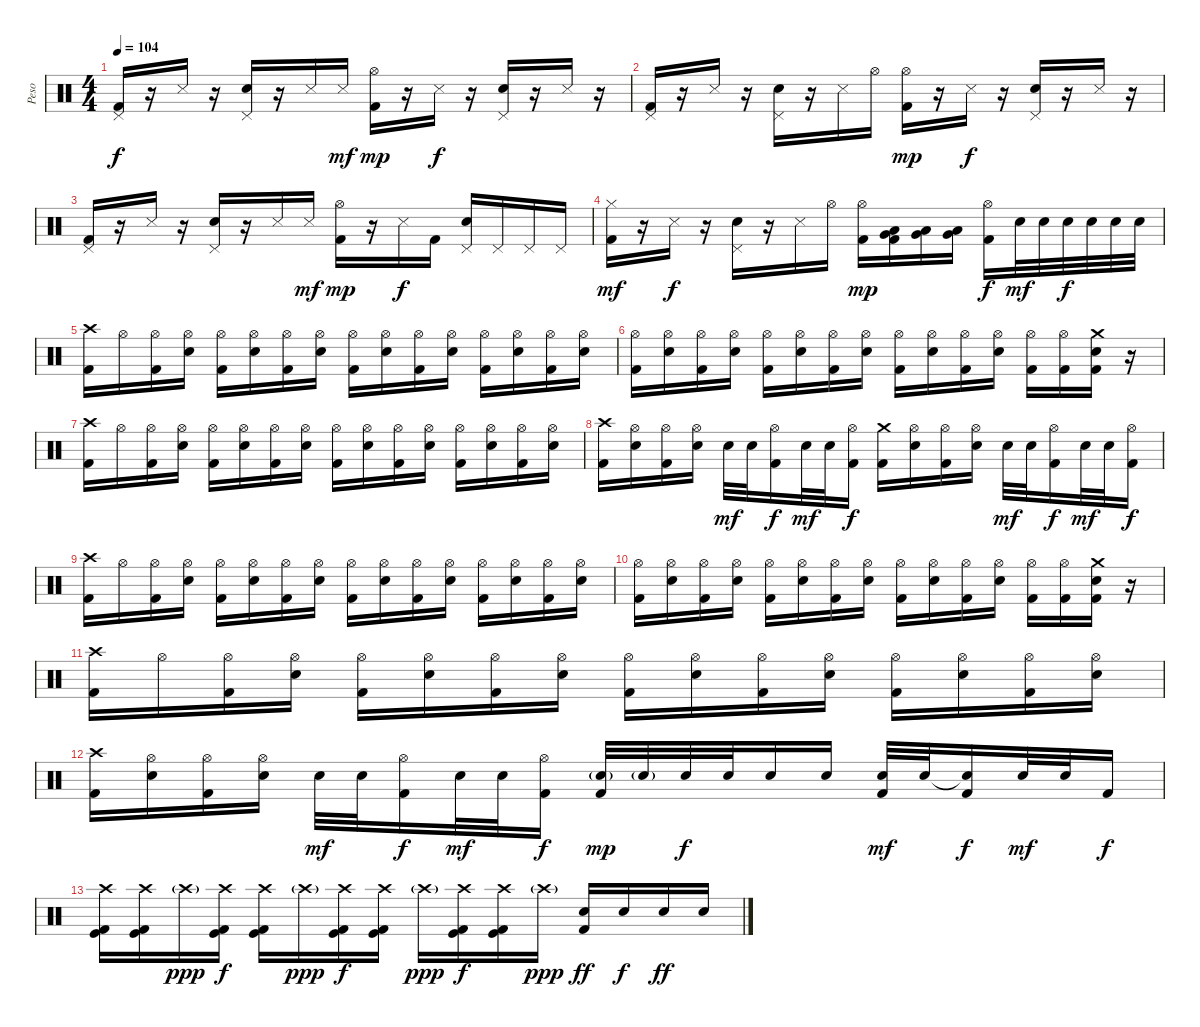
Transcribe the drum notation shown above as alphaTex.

\track ("Peso" "Peso") {instrument percussion}
\staff {score}
\articulation defaults
\ts (4 4)
\tempo 104
\clef neutral
\ks c
("Pedal Hi-Hat (hit)" "Kick (hit) 2").16{dy f volume 15} r.16 "Metronome (hit)".16 r.16 ("Pedal Hi-Hat (hit)" "Electric Snare (hit)").16 r.16 "Metronome (hit)".16 "Metronome (hit)".16{dy mf} ("Hi-Hat (open)" "Kick (hit) 2").16{dy mp} r.16 "Metronome (hit)".16{dy f} r.16 ("Pedal Hi-Hat (hit)" "Electric Snare (hit)").16 r.16 "Metronome (hit)".16 r.16 |
("Pedal Hi-Hat (hit)" "Kick (hit) 2").16 r.16 "Metronome (hit)".16 r.16 ("Pedal Hi-Hat (hit)" "Electric Snare (hit)").16 r.16 "Metronome (hit)".16 "Hi-Hat (open)".16 ("Hi-Hat (open)" "Kick (hit) 2").16{dy mp} r.16 "Metronome (hit)".16{dy f} r.16 ("Pedal Hi-Hat (hit)" "Electric Snare (hit)").16 r.16 "Metronome (hit)".16 r.16 |
("Pedal Hi-Hat (hit)" "Kick (hit) 2").16 r.16 "Metronome (hit)".16 r.16 ("Pedal Hi-Hat (hit)" "Electric Snare (hit)").16 r.16 "Metronome (hit)".16 "Metronome (hit)".16{dy mf} ("Hi-Hat (open)" "Kick (hit) 2").16{dy mp} r.16 "Metronome (hit)".16{dy f} "Kick (hit) 2".16 ("Pedal Hi-Hat (hit)" "Electric Snare (hit)").16 "Pedal Hi-Hat (hit)".16 "Pedal Hi-Hat (hit)".16 "Pedal Hi-Hat (hit)".16 |
("Hi-Hat (closed)" "Kick (hit) 2").16{dy mf} r.16 "Metronome (hit)".16{dy f} r.16 ("Pedal Hi-Hat (hit)" "Electric Snare (hit)").16 r.16 "Metronome (hit)".16 "Hi-Hat (open)".16 ("Hi-Hat (open)" "Kick (hit) 2").16{dy mp} ("Low Tom (hit)" "Very Low Tom (hit)" "Kick (hit) 2").16 ("Low Tom (hit)" "Very Low Tom (hit)").16 ("Low Tom (hit)" "Very Low Tom (hit)").16 ("Hi-Hat (open)" "Kick (hit) 2").16{dy f} "Electric Snare (hit)".32{dy mf} "Electric Snare (hit)".32 "Electric Snare (hit)".32{dy f} "Electric Snare (hit)".32 "Electric Snare (hit)".32 "Electric Snare (hit)".32 |
("Crash high (hit)" "Kick (hit) 2").16 "Hi-Hat (open)".16 ("Hi-Hat (open)" "Kick (hit) 2").16 ("Hi-Hat (open)" "Electric Snare (hit)").16 ("Hi-Hat (open)" "Kick (hit) 2").16 ("Hi-Hat (open)" "Electric Snare (hit)").16 ("Hi-Hat (open)" "Kick (hit) 2").16 ("Hi-Hat (open)" "Electric Snare (hit)").16 ("Hi-Hat (open)" "Kick (hit) 2").16 ("Hi-Hat (open)" "Electric Snare (hit)").16 ("Hi-Hat (open)" "Kick (hit) 2").16 ("Hi-Hat (open)" "Electric Snare (hit)").16 ("Hi-Hat (open)" "Kick (hit) 2").16 ("Hi-Hat (open)" "Electric Snare (hit)").16 ("Hi-Hat (open)" "Kick (hit) 2").16 ("Hi-Hat (open)" "Electric Snare (hit)").16 |
("Hi-Hat (open)" "Kick (hit) 2").16 ("Hi-Hat (open)" "Electric Snare (hit)").16 ("Hi-Hat (open)" "Kick (hit) 2").16 ("Hi-Hat (open)" "Electric Snare (hit)").16 ("Hi-Hat (open)" "Kick (hit) 2").16 ("Hi-Hat (open)" "Electric Snare (hit)").16 ("Hi-Hat (open)" "Kick (hit) 2").16 ("Hi-Hat (open)" "Electric Snare (hit)").16 ("Hi-Hat (open)" "Kick (hit) 2").16 ("Hi-Hat (open)" "Electric Snare (hit)").16 ("Hi-Hat (open)" "Kick (hit) 2").16 ("Hi-Hat (open)" "Electric Snare (hit)").16 ("Hi-Hat (open)" "Kick (hit) 2").16 ("Hi-Hat (open)" "Kick (hit) 2").16 ("Crash medium (hit)" "Electric Snare (hit)" "Kick (hit) 2").16 r.16 |
("Crash high (hit)" "Kick (hit) 2").16 "Hi-Hat (open)".16 ("Hi-Hat (open)" "Kick (hit) 2").16 ("Hi-Hat (open)" "Electric Snare (hit)").16 ("Hi-Hat (open)" "Kick (hit) 2").16 ("Hi-Hat (open)" "Electric Snare (hit)").16 ("Hi-Hat (open)" "Kick (hit) 2").16 ("Hi-Hat (open)" "Electric Snare (hit)").16 ("Hi-Hat (open)" "Kick (hit) 2").16 ("Hi-Hat (open)" "Electric Snare (hit)").16 ("Hi-Hat (open)" "Kick (hit) 2").16 ("Hi-Hat (open)" "Electric Snare (hit)").16 ("Hi-Hat (open)" "Kick (hit) 2").16 ("Hi-Hat (open)" "Electric Snare (hit)").16 ("Hi-Hat (open)" "Kick (hit) 2").16 ("Hi-Hat (open)" "Electric Snare (hit)").16 |
("Crash high (hit)" "Kick (hit) 2").16 ("Hi-Hat (open)" "Electric Snare (hit)").16 ("Hi-Hat (open)" "Kick (hit) 2").16 ("Hi-Hat (open)" "Electric Snare (hit)").16 "Electric Snare (hit)".32{dy mf} "Electric Snare (hit)".32 ("Hi-Hat (open)" "Kick (hit) 2").16{dy f} "Electric Snare (hit)".32{dy mf} "Electric Snare (hit)".32 ("Hi-Hat (open)" "Kick (hit) 2").16{dy f} ("Crash medium (hit)" "Kick (hit) 2").16 ("Hi-Hat (open)" "Electric Snare (hit)").16 ("Hi-Hat (open)" "Kick (hit) 2").16 ("Hi-Hat (open)" "Electric Snare (hit)").16 "Electric Snare (hit)".32{dy mf} "Electric Snare (hit)".32 ("Hi-Hat (open)" "Kick (hit) 2").16{dy f} "Electric Snare (hit)".32{dy mf} "Electric Snare (hit)".32 ("Hi-Hat (open)" "Kick (hit) 2").16{dy f} |
("Crash high (hit)" "Kick (hit) 2").16 "Hi-Hat (open)".16 ("Hi-Hat (open)" "Kick (hit) 2").16 ("Hi-Hat (open)" "Electric Snare (hit)").16 ("Hi-Hat (open)" "Kick (hit) 2").16 ("Hi-Hat (open)" "Electric Snare (hit)").16 ("Hi-Hat (open)" "Kick (hit) 2").16 ("Hi-Hat (open)" "Electric Snare (hit)").16 ("Hi-Hat (open)" "Kick (hit) 2").16 ("Hi-Hat (open)" "Electric Snare (hit)").16 ("Hi-Hat (open)" "Kick (hit) 2").16 ("Hi-Hat (open)" "Electric Snare (hit)").16 ("Hi-Hat (open)" "Kick (hit) 2").16 ("Hi-Hat (open)" "Electric Snare (hit)").16 ("Hi-Hat (open)" "Kick (hit) 2").16 ("Hi-Hat (open)" "Electric Snare (hit)").16 |
("Hi-Hat (open)" "Kick (hit) 2").16 ("Hi-Hat (open)" "Electric Snare (hit)").16 ("Hi-Hat (open)" "Kick (hit) 2").16 ("Hi-Hat (open)" "Electric Snare (hit)").16 ("Hi-Hat (open)" "Kick (hit) 2").16 ("Hi-Hat (open)" "Electric Snare (hit)").16 ("Hi-Hat (open)" "Kick (hit) 2").16 ("Hi-Hat (open)" "Electric Snare (hit)").16 ("Hi-Hat (open)" "Kick (hit) 2").16 ("Hi-Hat (open)" "Electric Snare (hit)").16 ("Hi-Hat (open)" "Kick (hit) 2").16 ("Hi-Hat (open)" "Electric Snare (hit)").16 ("Hi-Hat (open)" "Kick (hit) 2").16 ("Hi-Hat (open)" "Kick (hit) 2").16 ("Crash medium (hit)" "Electric Snare (hit)" "Kick (hit) 2").16 r.16 |
("Crash high (hit)" "Kick (hit) 2").16 "Hi-Hat (open)".16 ("Hi-Hat (open)" "Kick (hit) 2").16 ("Hi-Hat (open)" "Electric Snare (hit)").16 ("Hi-Hat (open)" "Kick (hit) 2").16 ("Hi-Hat (open)" "Electric Snare (hit)").16 ("Hi-Hat (open)" "Kick (hit) 2").16 ("Hi-Hat (open)" "Electric Snare (hit)").16 ("Hi-Hat (open)" "Kick (hit) 2").16 ("Hi-Hat (open)" "Electric Snare (hit)").16 ("Hi-Hat (open)" "Kick (hit) 2").16 ("Hi-Hat (open)" "Electric Snare (hit)").16 ("Hi-Hat (open)" "Kick (hit) 2").16 ("Hi-Hat (open)" "Electric Snare (hit)").16 ("Hi-Hat (open)" "Kick (hit) 2").16 ("Hi-Hat (open)" "Electric Snare (hit)").16 |
("Crash high (hit)" "Kick (hit) 2").16 ("Hi-Hat (open)" "Electric Snare (hit)").16 ("Hi-Hat (open)" "Kick (hit) 2").16 ("Hi-Hat (open)" "Electric Snare (hit)").16 "Electric Snare (hit)".32{dy mf} "Electric Snare (hit)".32 ("Hi-Hat (open)" "Kick (hit) 2").16{dy f} "Electric Snare (hit)".32{dy mf} "Electric Snare (hit)".32 ("Hi-Hat (open)" "Kick (hit) 2").16{dy f} ("Electric Snare (hit)"{g} "Kick (hit) 2").32{dy mp} "Electric Snare (hit)"{g}.32 "Electric Snare (hit)".32{dy f} "Electric Snare (hit)".32 "Electric Snare (hit)".16 "Electric Snare (hit)".16 ("Electric Snare (hit)" "Kick (hit) 2").32{dy mf} "Electric Snare (hit)".32 ("Snare (hit)"{t} "Kick (hit) 2").16{dy f} "Electric Snare (hit)".32{dy mf} "Electric Snare (hit)".32 "Kick (hit) 2".16{dy f} |
("Crash high (hit)" "Kick (hit)" "Kick (hit) 2").16 ("Crash high (hit)" "Kick (hit)" "Kick (hit) 2").16 "Crash high (hit)"{g}.16{dy ppp} ("Crash high (hit)" "Kick (hit)" "Kick (hit) 2").16{dy f} ("Crash high (hit)" "Kick (hit)" "Kick (hit) 2").16 "Crash high (hit)"{g}.16{dy ppp} ("Crash high (hit)" "Kick (hit)" "Kick (hit) 2").16{dy f} ("Crash high (hit)" "Kick (hit)" "Kick (hit) 2").16 "Crash high (hit)"{g}.16{dy ppp} ("Crash high (hit)" "Kick (hit)" "Kick (hit) 2").16{dy f} ("Crash high (hit)" "Kick (hit)" "Kick (hit) 2").16 "Crash high (hit)"{g}.16{dy ppp} ("Electric Snare (hit)" "Kick (hit) 2").16{dy ff} "Electric Snare (hit)".16{dy f} "Electric Snare (hit)".16{dy ff} "Electric Snare (hit)".16
